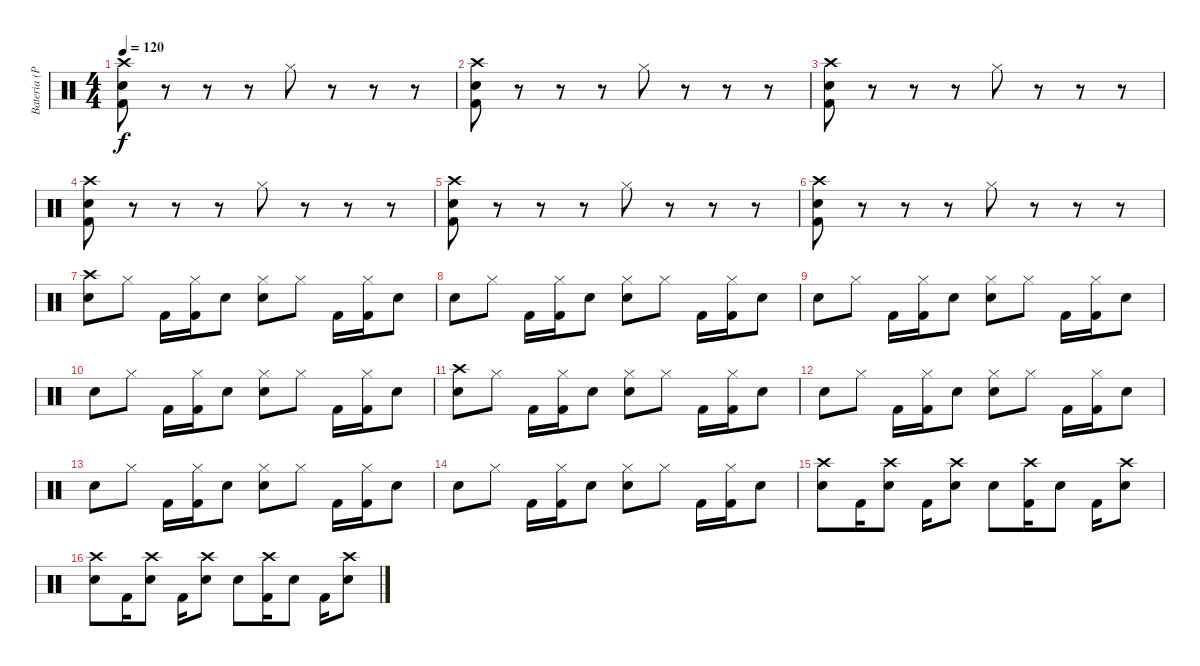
\track ("Bateria (Pelado)" "Bateria (P") {instrument percussion}
\staff {score}
\articulation defaults
\ts (4 4)
\tempo 120
\clef neutral
\ks c
("Crash high (hit)" "Electric Snare (hit)" "Kick (hit) 2").8{dy f} r.8 r.8 r.8 "Hi-Hat (closed)".8 r.8 r.8 r.8 |
("Crash high (hit)" "Electric Snare (hit)" "Kick (hit) 2").8 r.8 r.8 r.8 "Hi-Hat (closed)".8 r.8 r.8 r.8 |
("Crash high (hit)" "Electric Snare (hit)" "Kick (hit) 2").8 r.8 r.8 r.8 "Hi-Hat (closed)".8 r.8 r.8 r.8 |
("Crash high (hit)" "Electric Snare (hit)" "Kick (hit) 2").8 r.8 r.8 r.8 "Hi-Hat (closed)".8 r.8 r.8 r.8 |
("Crash high (hit)" "Electric Snare (hit)" "Kick (hit) 2").8 r.8 r.8 r.8 "Hi-Hat (closed)".8 r.8 r.8 r.8 |
("Crash high (hit)" "Electric Snare (hit)" "Kick (hit) 2").8 r.8 r.8 r.8 "Hi-Hat (closed)".8 r.8 r.8 r.8 |
("Crash high (hit)" "Electric Snare (hit)").8 "Hi-Hat (closed)".8 "Kick (hit) 2".16 ("Hi-Hat (closed)" "Kick (hit) 2").16 "Electric Snare (hit)".8 ("Hi-Hat (closed)" "Electric Snare (hit)").8 "Hi-Hat (closed)".8 "Kick (hit) 2".16 ("Hi-Hat (closed)" "Kick (hit) 2").16 "Electric Snare (hit)".8 |
"Electric Snare (hit)".8 "Hi-Hat (closed)".8 "Kick (hit) 2".16 ("Hi-Hat (closed)" "Kick (hit) 2").16 "Electric Snare (hit)".8 ("Hi-Hat (closed)" "Electric Snare (hit)").8 "Hi-Hat (closed)".8 "Kick (hit) 2".16 ("Hi-Hat (closed)" "Kick (hit) 2").16 "Electric Snare (hit)".8 |
"Electric Snare (hit)".8 "Hi-Hat (closed)".8 "Kick (hit) 2".16 ("Hi-Hat (closed)" "Kick (hit) 2").16 "Electric Snare (hit)".8 ("Hi-Hat (closed)" "Electric Snare (hit)").8 "Hi-Hat (closed)".8 "Kick (hit) 2".16 ("Hi-Hat (closed)" "Kick (hit) 2").16 "Electric Snare (hit)".8 |
"Electric Snare (hit)".8 "Hi-Hat (closed)".8 "Kick (hit) 2".16 ("Hi-Hat (closed)" "Kick (hit) 2").16 "Electric Snare (hit)".8 ("Hi-Hat (closed)" "Electric Snare (hit)").8 "Hi-Hat (closed)".8 "Kick (hit) 2".16 ("Hi-Hat (closed)" "Kick (hit) 2").16 "Electric Snare (hit)".8 |
("Crash high (hit)" "Electric Snare (hit)").8 "Hi-Hat (closed)".8 "Kick (hit) 2".16 ("Hi-Hat (closed)" "Kick (hit) 2").16 "Electric Snare (hit)".8 ("Hi-Hat (closed)" "Electric Snare (hit)").8 "Hi-Hat (closed)".8 "Kick (hit) 2".16 ("Hi-Hat (closed)" "Kick (hit) 2").16 "Electric Snare (hit)".8 |
"Electric Snare (hit)".8 "Hi-Hat (closed)".8 "Kick (hit) 2".16 ("Hi-Hat (closed)" "Kick (hit) 2").16 "Electric Snare (hit)".8 ("Hi-Hat (closed)" "Electric Snare (hit)").8 "Hi-Hat (closed)".8 "Kick (hit) 2".16 ("Hi-Hat (closed)" "Kick (hit) 2").16 "Electric Snare (hit)".8 |
"Electric Snare (hit)".8 "Hi-Hat (closed)".8 "Kick (hit) 2".16 ("Hi-Hat (closed)" "Kick (hit) 2").16 "Electric Snare (hit)".8 ("Hi-Hat (closed)" "Electric Snare (hit)").8 "Hi-Hat (closed)".8 "Kick (hit) 2".16 ("Hi-Hat (closed)" "Kick (hit) 2").16 "Electric Snare (hit)".8 |
"Electric Snare (hit)".8 "Hi-Hat (closed)".8 "Kick (hit) 2".16 ("Hi-Hat (closed)" "Kick (hit) 2").16 "Electric Snare (hit)".8 ("Hi-Hat (closed)" "Electric Snare (hit)").8 "Hi-Hat (closed)".8 "Kick (hit) 2".16 ("Hi-Hat (closed)" "Kick (hit) 2").16 "Electric Snare (hit)".8 |
("Crash high (hit)" "Electric Snare (hit)").8 "Kick (hit) 2".16 ("Crash high (hit)" "Electric Snare (hit)").8 "Kick (hit) 2".16 ("Crash high (hit)" "Electric Snare (hit)").8 "Electric Snare (hit)".8 ("Crash high (hit)" "Kick (hit) 2").16 "Electric Snare (hit)".8 "Kick (hit) 2".16 ("Crash high (hit)" "Electric Snare (hit)").8 |
("Crash high (hit)" "Electric Snare (hit)").8 "Kick (hit) 2".16 ("Crash high (hit)" "Electric Snare (hit)").8 "Kick (hit) 2".16 ("Crash high (hit)" "Electric Snare (hit)").8 "Electric Snare (hit)".8 ("Crash high (hit)" "Kick (hit) 2").16 "Electric Snare (hit)".8 "Kick (hit) 2".16 ("Crash high (hit)" "Electric Snare (hit)").8
